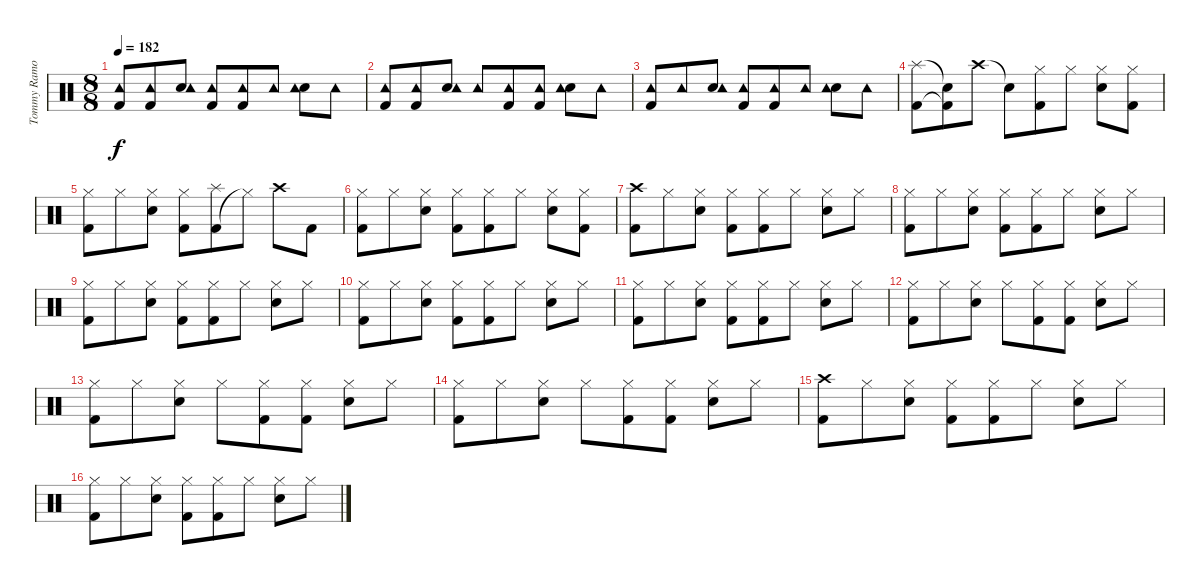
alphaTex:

\track ("Tommy Ramone - Drums" "Tommy Ramo") {instrument percussion}
\staff {score}
\articulation defaults
\ts (8 8)
\tempo 182
\clef neutral
\ks c
("Kick (hit) 2" "Tambourine (hit)").8{dy f} ("Kick (hit) 2" "Tambourine (hit)").8 ("Snare (hit) 2" "Tambourine (hit)").8 ("Kick (hit) 2" "Tambourine (hit)").8 ("Kick (hit) 2" "Tambourine (hit)").8 "Tambourine (hit)".8 ("Snare (hit) 2" "Tambourine (hit)").8 "Tambourine (hit)".8 |
("Kick (hit) 2" "Tambourine (hit)").8 ("Kick (hit) 2" "Tambourine (hit)").8 ("Snare (hit) 2" "Tambourine (hit)").8 "Tambourine (hit)".8 ("Kick (hit) 2" "Tambourine (hit)").8 ("Kick (hit) 2" "Tambourine (hit)").8 ("Snare (hit) 2" "Tambourine (hit)").8 "Tambourine (hit)".8 |
("Kick (hit) 2" "Tambourine (hit)").8 "Tambourine (hit)".8 ("Snare (hit) 2" "Tambourine (hit)").8 ("Kick (hit) 2" "Tambourine (hit)").8 ("Kick (hit) 2" "Tambourine (hit)").8 "Tambourine (hit)".8 ("Snare (hit) 2" "Tambourine (hit)").8 "Tambourine (hit)".8 |
("Kick (hit) 2" "Splash (hit)").8 ("Kick (hit) 2"{t} "Electric Snare (hit)"{t}).8 "Crash high (hit)".8 "Electric Snare (hit)"{t}.8 ("Kick (hit) 2" "Hi-Hat (closed)").8 "Hi-Hat (closed)".8 ("Snare (hit) 2" "Hi-Hat (closed)").8 ("Kick (hit) 2" "Hi-Hat (closed)").8 |
("Kick (hit) 2" "Hi-Hat (closed)").8 "Hi-Hat (closed)".8 ("Snare (hit) 2" "Hi-Hat (closed)").8 ("Kick (hit) 2" "Hi-Hat (closed)").8 ("Kick (hit) 2" "Splash (hit)").8 "Hi-Hat (closed)"{t}.8 "Crash high (hit)".8 "Kick (hit) 2".8 |
("Kick (hit) 2" "Hi-Hat (closed)").8 "Hi-Hat (closed)".8 ("Snare (hit) 2" "Hi-Hat (closed)").8 ("Kick (hit) 2" "Hi-Hat (closed)").8 ("Kick (hit) 2" "Hi-Hat (closed)").8 "Hi-Hat (closed)".8 ("Snare (hit) 2" "Hi-Hat (closed)").8 ("Kick (hit) 2" "Hi-Hat (closed)").8 |
("Kick (hit) 2" "Crash high (hit)").8 "Hi-Hat (closed)".8 ("Snare (hit) 2" "Hi-Hat (closed)").8 ("Kick (hit) 2" "Hi-Hat (closed)").8 ("Kick (hit) 2" "Hi-Hat (closed)").8 "Hi-Hat (closed)".8 ("Snare (hit) 2" "Hi-Hat (closed)").8 "Hi-Hat (closed)".8 |
("Kick (hit) 2" "Hi-Hat (closed)").8 "Hi-Hat (closed)".8 ("Snare (hit) 2" "Hi-Hat (closed)").8 ("Kick (hit) 2" "Hi-Hat (closed)").8 ("Kick (hit) 2" "Hi-Hat (closed)").8 "Hi-Hat (closed)".8 ("Snare (hit) 2" "Hi-Hat (closed)").8 "Hi-Hat (closed)".8 |
("Kick (hit) 2" "Hi-Hat (closed)").8 "Hi-Hat (closed)".8 ("Snare (hit) 2" "Hi-Hat (closed)").8 ("Kick (hit) 2" "Hi-Hat (closed)").8 ("Kick (hit) 2" "Hi-Hat (closed)").8 "Hi-Hat (closed)".8 ("Snare (hit) 2" "Hi-Hat (closed)").8 "Hi-Hat (closed)".8 |
("Kick (hit) 2" "Hi-Hat (closed)").8 "Hi-Hat (closed)".8 ("Snare (hit) 2" "Hi-Hat (closed)").8 ("Kick (hit) 2" "Hi-Hat (closed)").8 ("Kick (hit) 2" "Hi-Hat (closed)").8 "Hi-Hat (closed)".8 ("Snare (hit) 2" "Hi-Hat (closed)").8 "Hi-Hat (closed)".8 |
("Kick (hit) 2" "Hi-Hat (closed)").8 "Hi-Hat (closed)".8 ("Snare (hit) 2" "Hi-Hat (closed)").8 ("Kick (hit) 2" "Hi-Hat (closed)").8 ("Kick (hit) 2" "Hi-Hat (closed)").8 "Hi-Hat (closed)".8 ("Snare (hit) 2" "Hi-Hat (closed)").8 "Hi-Hat (closed)".8 |
("Kick (hit) 2" "Hi-Hat (closed)").8 "Hi-Hat (closed)".8 ("Snare (hit) 2" "Hi-Hat (closed)").8 "Hi-Hat (closed)".8 ("Kick (hit) 2" "Hi-Hat (closed)").8 ("Kick (hit) 2" "Hi-Hat (closed)").8 ("Snare (hit) 2" "Hi-Hat (closed)").8 "Hi-Hat (closed)".8 |
("Kick (hit) 2" "Hi-Hat (closed)").8 "Hi-Hat (closed)".8 ("Snare (hit) 2" "Hi-Hat (closed)").8 "Hi-Hat (closed)".8 ("Kick (hit) 2" "Hi-Hat (closed)").8 ("Kick (hit) 2" "Hi-Hat (closed)").8 ("Snare (hit) 2" "Hi-Hat (closed)").8 "Hi-Hat (closed)".8 |
("Kick (hit) 2" "Hi-Hat (closed)").8 "Hi-Hat (closed)".8 ("Snare (hit) 2" "Hi-Hat (closed)").8 "Hi-Hat (closed)".8 ("Kick (hit) 2" "Hi-Hat (closed)").8 ("Kick (hit) 2" "Hi-Hat (closed)").8 ("Snare (hit) 2" "Hi-Hat (closed)").8 "Hi-Hat (closed)".8 |
("Kick (hit) 2" "Crash high (hit)").8 "Hi-Hat (closed)".8 ("Snare (hit) 2" "Hi-Hat (closed)").8 ("Kick (hit) 2" "Hi-Hat (closed)").8 ("Kick (hit) 2" "Hi-Hat (closed)").8 "Hi-Hat (closed)".8 ("Snare (hit) 2" "Hi-Hat (closed)").8 "Hi-Hat (closed)".8 |
("Kick (hit) 2" "Hi-Hat (closed)").8 "Hi-Hat (closed)".8 ("Snare (hit) 2" "Hi-Hat (closed)").8 ("Kick (hit) 2" "Hi-Hat (closed)").8 ("Kick (hit) 2" "Hi-Hat (closed)").8 "Hi-Hat (closed)".8 ("Snare (hit) 2" "Hi-Hat (closed)").8 "Hi-Hat (closed)".8
